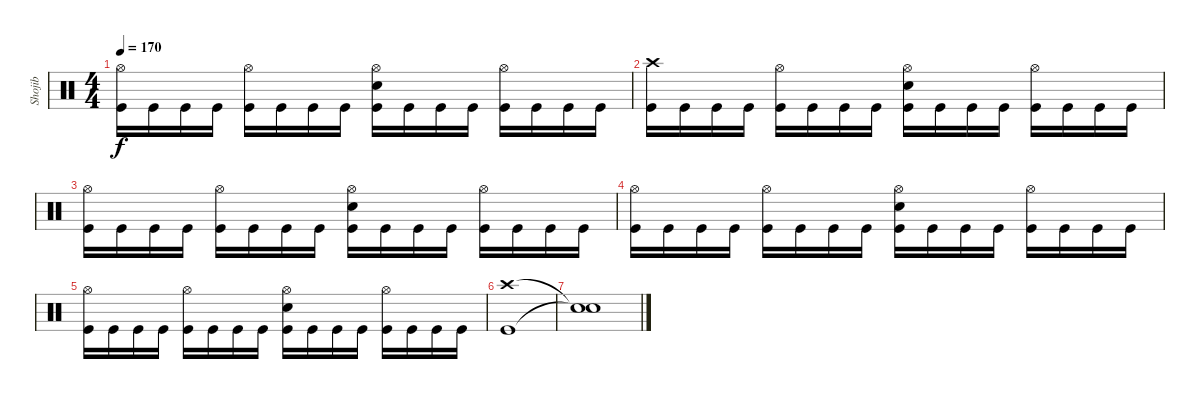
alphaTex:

\track ("Shojib" "Shojib") {instrument percussion}
\staff {score}
\articulation defaults
\ts (4 4)
\tempo 170
\clef neutral
\ks c
("Hi-Hat (open)" "Kick (hit)").16{dy f} "Kick (hit)".16 "Kick (hit)".16 "Kick (hit)".16 ("Hi-Hat (open)" "Kick (hit)").16 "Kick (hit)".16 "Kick (hit)".16 "Kick (hit)".16 ("Hi-Hat (open)" "Electric Snare (hit)" "Kick (hit)").16 "Kick (hit)".16 "Kick (hit)".16 "Kick (hit)".16 ("Hi-Hat (open)" "Kick (hit)").16 "Kick (hit)".16 "Kick (hit)".16 "Kick (hit)".16 |
("Crash high (hit)" "Kick (hit)").16 "Kick (hit)".16 "Kick (hit)".16 "Kick (hit)".16 ("Hi-Hat (open)" "Kick (hit)").16 "Kick (hit)".16 "Kick (hit)".16 "Kick (hit)".16 ("Hi-Hat (open)" "Electric Snare (hit)" "Kick (hit)").16 "Kick (hit)".16 "Kick (hit)".16 "Kick (hit)".16 ("Hi-Hat (open)" "Kick (hit)").16 "Kick (hit)".16 "Kick (hit)".16 "Kick (hit)".16 |
("Hi-Hat (open)" "Kick (hit)").16 "Kick (hit)".16 "Kick (hit)".16 "Kick (hit)".16 ("Hi-Hat (open)" "Kick (hit)").16 "Kick (hit)".16 "Kick (hit)".16 "Kick (hit)".16 ("Hi-Hat (open)" "Electric Snare (hit)" "Kick (hit)").16 "Kick (hit)".16 "Kick (hit)".16 "Kick (hit)".16 ("Hi-Hat (open)" "Kick (hit)").16 "Kick (hit)".16 "Kick (hit)".16 "Kick (hit)".16 |
("Hi-Hat (open)" "Kick (hit)").16 "Kick (hit)".16 "Kick (hit)".16 "Kick (hit)".16 ("Hi-Hat (open)" "Kick (hit)").16 "Kick (hit)".16 "Kick (hit)".16 "Kick (hit)".16 ("Hi-Hat (open)" "Electric Snare (hit)" "Kick (hit)").16 "Kick (hit)".16 "Kick (hit)".16 "Kick (hit)".16 ("Hi-Hat (open)" "Kick (hit)").16 "Kick (hit)".16 "Kick (hit)".16 "Kick (hit)".16 |
("Hi-Hat (open)" "Kick (hit)").16 "Kick (hit)".16 "Kick (hit)".16 "Kick (hit)".16 ("Hi-Hat (open)" "Kick (hit)").16 "Kick (hit)".16 "Kick (hit)".16 "Kick (hit)".16 ("Hi-Hat (open)" "Electric Snare (hit)" "Kick (hit)").16 "Kick (hit)".16 "Kick (hit)".16 "Kick (hit)".16 ("Hi-Hat (open)" "Kick (hit)").16 "Kick (hit)".16 "Kick (hit)".16 "Kick (hit)".16 |
("Crash high (hit)" "Kick (hit)").1 |
("Snare (hit)"{t} "Snare (hit)"{t}).1
